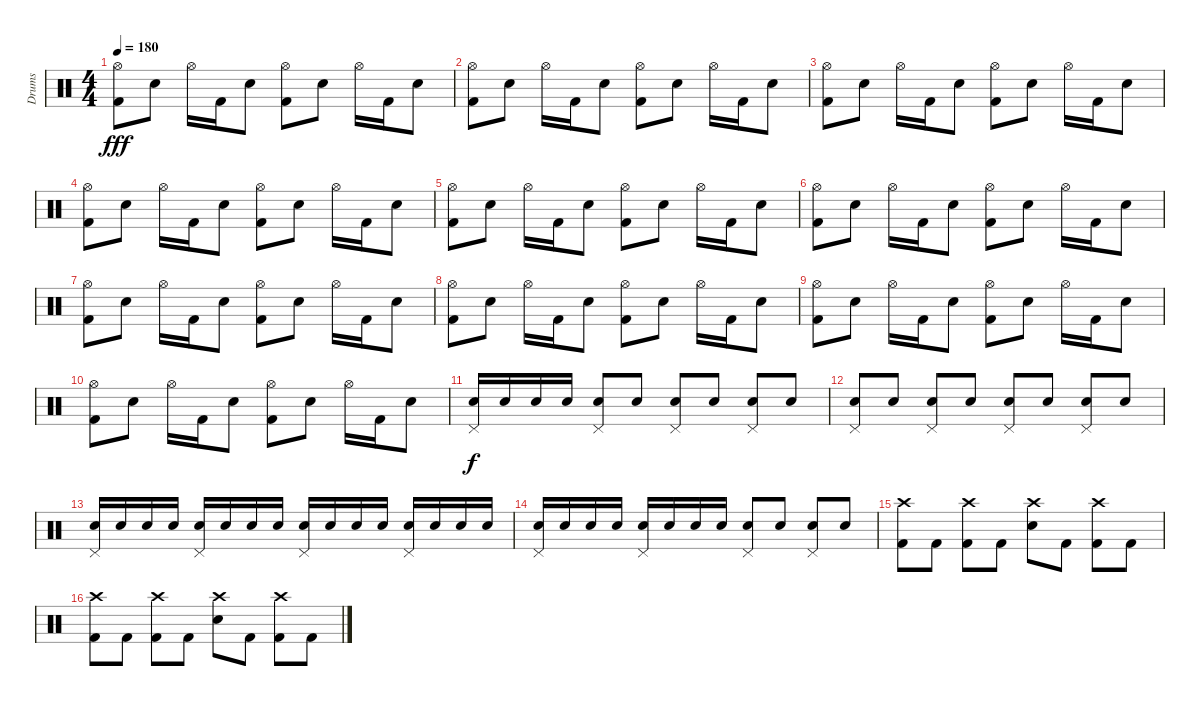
\track ("Drums" "Drums") {instrument percussion}
\staff {score}
\articulation defaults
\ts (4 4)
\tempo 180
\clef neutral
\ks c
("Hi-Hat (open)" "Kick (hit) 2").8{dy fff} "Snare (hit) 2".8 "Hi-Hat (open)".16 "Kick (hit) 2".16 "Snare (hit) 2".8 ("Hi-Hat (open)" "Kick (hit) 2").8 "Snare (hit) 2".8 "Hi-Hat (open)".16 "Kick (hit) 2".16 "Snare (hit) 2".8 |
("Hi-Hat (open)" "Kick (hit) 2").8 "Snare (hit) 2".8 "Hi-Hat (open)".16 "Kick (hit) 2".16 "Snare (hit) 2".8 ("Hi-Hat (open)" "Kick (hit) 2").8 "Snare (hit) 2".8 "Hi-Hat (open)".16 "Kick (hit) 2".16 "Snare (hit) 2".8 |
("Hi-Hat (open)" "Kick (hit) 2").8 "Snare (hit) 2".8 "Hi-Hat (open)".16 "Kick (hit) 2".16 "Snare (hit) 2".8 ("Hi-Hat (open)" "Kick (hit) 2").8 "Snare (hit) 2".8 "Hi-Hat (open)".16 "Kick (hit) 2".16 "Snare (hit) 2".8 |
("Hi-Hat (open)" "Kick (hit) 2").8 "Snare (hit) 2".8 "Hi-Hat (open)".16 "Kick (hit) 2".16 "Snare (hit) 2".8 ("Hi-Hat (open)" "Kick (hit) 2").8 "Snare (hit) 2".8 "Hi-Hat (open)".16 "Kick (hit) 2".16 "Snare (hit) 2".8 |
("Hi-Hat (open)" "Kick (hit) 2").8 "Snare (hit) 2".8 "Hi-Hat (open)".16 "Kick (hit) 2".16 "Snare (hit) 2".8 ("Hi-Hat (open)" "Kick (hit) 2").8 "Snare (hit) 2".8 "Hi-Hat (open)".16 "Kick (hit) 2".16 "Snare (hit) 2".8 |
("Hi-Hat (open)" "Kick (hit) 2").8 "Snare (hit) 2".8 "Hi-Hat (open)".16 "Kick (hit) 2".16 "Snare (hit) 2".8 ("Hi-Hat (open)" "Kick (hit) 2").8 "Snare (hit) 2".8 "Hi-Hat (open)".16 "Kick (hit) 2".16 "Snare (hit) 2".8 |
("Hi-Hat (open)" "Kick (hit) 2").8 "Snare (hit) 2".8 "Hi-Hat (open)".16 "Kick (hit) 2".16 "Snare (hit) 2".8 ("Hi-Hat (open)" "Kick (hit) 2").8 "Snare (hit) 2".8 "Hi-Hat (open)".16 "Kick (hit) 2".16 "Snare (hit) 2".8 |
("Hi-Hat (open)" "Kick (hit) 2").8 "Snare (hit) 2".8 "Hi-Hat (open)".16 "Kick (hit) 2".16 "Snare (hit) 2".8 ("Hi-Hat (open)" "Kick (hit) 2").8 "Snare (hit) 2".8 "Hi-Hat (open)".16 "Kick (hit) 2".16 "Snare (hit) 2".8 |
("Hi-Hat (open)" "Kick (hit) 2").8 "Snare (hit) 2".8 "Hi-Hat (open)".16 "Kick (hit) 2".16 "Snare (hit) 2".8 ("Hi-Hat (open)" "Kick (hit) 2").8 "Snare (hit) 2".8 "Hi-Hat (open)".16 "Kick (hit) 2".16 "Snare (hit) 2".8 |
("Hi-Hat (open)" "Kick (hit) 2").8 "Snare (hit) 2".8 "Hi-Hat (open)".16 "Kick (hit) 2".16 "Snare (hit) 2".8 ("Hi-Hat (open)" "Kick (hit) 2").8 "Snare (hit) 2".8 "Hi-Hat (open)".16 "Kick (hit) 2".16 "Snare (hit) 2".8 |
("Pedal Hi-Hat (hit)" "Snare (hit) 2").16{dy f volume 12} "Snare (hit) 2".16 "Snare (hit) 2".16 "Snare (hit) 2".16 ("Pedal Hi-Hat (hit)" "Snare (hit) 2").8 "Snare (hit) 2".8 ("Pedal Hi-Hat (hit)" "Snare (hit) 2").8 "Snare (hit) 2".8 ("Pedal Hi-Hat (hit)" "Snare (hit) 2").8 "Snare (hit) 2".8 |
("Pedal Hi-Hat (hit)" "Snare (hit) 2").8 "Snare (hit) 2".8 ("Pedal Hi-Hat (hit)" "Snare (hit) 2").8 "Snare (hit) 2".8 ("Pedal Hi-Hat (hit)" "Snare (hit) 2").8 "Snare (hit) 2".8 ("Pedal Hi-Hat (hit)" "Snare (hit) 2").8 "Snare (hit) 2".8 |
("Pedal Hi-Hat (hit)" "Snare (hit) 2").16 "Snare (hit) 2".16 "Snare (hit) 2".16 "Snare (hit) 2".16 ("Pedal Hi-Hat (hit)" "Snare (hit) 2").16 "Snare (hit) 2".16 "Snare (hit) 2".16 "Snare (hit) 2".16 ("Pedal Hi-Hat (hit)" "Snare (hit) 2").16 "Snare (hit) 2".16 "Snare (hit) 2".16 "Snare (hit) 2".16 ("Pedal Hi-Hat (hit)" "Snare (hit) 2").16 "Snare (hit) 2".16 "Snare (hit) 2".16 "Snare (hit) 2".16 |
("Pedal Hi-Hat (hit)" "Snare (hit) 2").16 "Snare (hit) 2".16 "Snare (hit) 2".16 "Snare (hit) 2".16 ("Pedal Hi-Hat (hit)" "Snare (hit) 2").16 "Snare (hit) 2".16{volume 16} "Snare (hit) 2".16 "Snare (hit) 2".16 ("Pedal Hi-Hat (hit)" "Snare (hit) 2").8 "Snare (hit) 2".8 ("Pedal Hi-Hat (hit)" "Snare (hit) 2").8 "Snare (hit) 2".8 |
("Crash high (hit)" "Kick (hit) 2").8 "Kick (hit) 2".8 ("Crash high (hit)" "Kick (hit) 2").8 "Kick (hit) 2".8 ("Crash high (hit)" "Snare (hit) 2").8 "Kick (hit) 2".8 ("Crash high (hit)" "Kick (hit) 2").8 "Kick (hit) 2".8 |
("Crash high (hit)" "Kick (hit) 2").8 "Kick (hit) 2".8 ("Crash high (hit)" "Kick (hit) 2").8 "Kick (hit) 2".8 ("Crash high (hit)" "Snare (hit) 2").8 "Kick (hit) 2".8 ("Crash high (hit)" "Kick (hit) 2").8 "Kick (hit) 2".8
